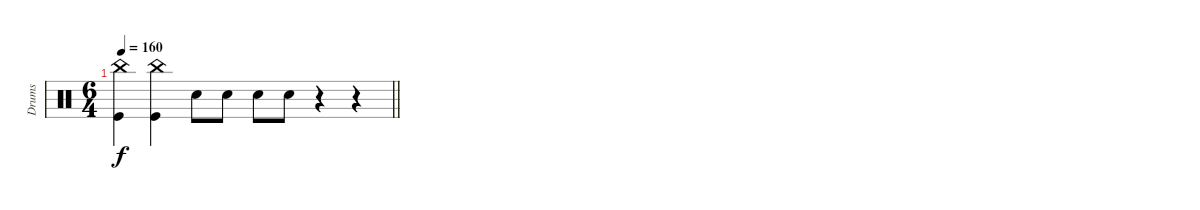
\track ("Drums" "Drums") {instrument percussion}
\staff {score}
\articulation defaults
\ts (6 4)
\tempo 160
\clef neutral
\barLineRight lightlight
\ks c
("Kick (hit)" "China (hit)").4{dy f} ("Kick (hit)" "China (hit)").4 "Electric Snare (hit)".8 "Electric Snare (hit)".8 "Electric Snare (hit)".8 "Electric Snare (hit)".8 r.4 r.4
